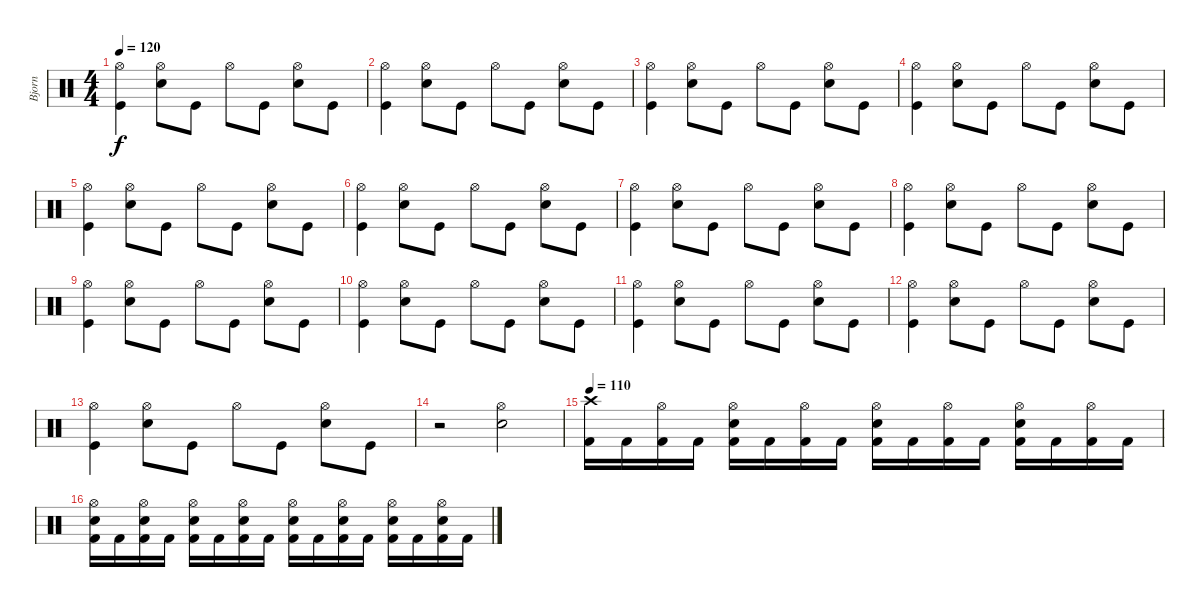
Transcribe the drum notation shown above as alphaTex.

\track ("Bjorn " "Bjorn ") {instrument percussion}
\staff {score}
\articulation defaults
\ts (4 4)
\tempo 120
\clef neutral
\ks c
("Hi-Hat (open)" "Kick (hit)").4{dy f} ("Hi-Hat (open)" "Electric Snare (hit)").8 "Kick (hit)".8 "Hi-Hat (open)".8 "Kick (hit)".8 ("Hi-Hat (open)" "Electric Snare (hit)").8 "Kick (hit)".8 |
("Hi-Hat (open)" "Kick (hit)").4 ("Hi-Hat (open)" "Electric Snare (hit)").8 "Kick (hit)".8 "Hi-Hat (open)".8 "Kick (hit)".8 ("Hi-Hat (open)" "Electric Snare (hit)").8 "Kick (hit)".8 |
("Hi-Hat (open)" "Kick (hit)").4 ("Hi-Hat (open)" "Electric Snare (hit)").8 "Kick (hit)".8 "Hi-Hat (open)".8 "Kick (hit)".8 ("Hi-Hat (open)" "Electric Snare (hit)").8 "Kick (hit)".8 |
("Hi-Hat (open)" "Kick (hit)").4 ("Hi-Hat (open)" "Electric Snare (hit)").8 "Kick (hit)".8 "Hi-Hat (open)".8 "Kick (hit)".8 ("Hi-Hat (open)" "Electric Snare (hit)").8 "Kick (hit)".8 |
("Hi-Hat (open)" "Kick (hit)").4 ("Hi-Hat (open)" "Electric Snare (hit)").8 "Kick (hit)".8 "Hi-Hat (open)".8 "Kick (hit)".8 ("Hi-Hat (open)" "Electric Snare (hit)").8 "Kick (hit)".8 |
("Hi-Hat (open)" "Kick (hit)").4 ("Hi-Hat (open)" "Electric Snare (hit)").8 "Kick (hit)".8 "Hi-Hat (open)".8 "Kick (hit)".8 ("Hi-Hat (open)" "Electric Snare (hit)").8 "Kick (hit)".8 |
("Hi-Hat (open)" "Kick (hit)").4 ("Hi-Hat (open)" "Electric Snare (hit)").8 "Kick (hit)".8 "Hi-Hat (open)".8 "Kick (hit)".8 ("Hi-Hat (open)" "Electric Snare (hit)").8 "Kick (hit)".8 |
("Hi-Hat (open)" "Kick (hit)").4 ("Hi-Hat (open)" "Electric Snare (hit)").8 "Kick (hit)".8 "Hi-Hat (open)".8 "Kick (hit)".8 ("Hi-Hat (open)" "Electric Snare (hit)").8 "Kick (hit)".8 |
("Hi-Hat (open)" "Kick (hit)").4 ("Hi-Hat (open)" "Electric Snare (hit)").8 "Kick (hit)".8 "Hi-Hat (open)".8 "Kick (hit)".8 ("Hi-Hat (open)" "Electric Snare (hit)").8 "Kick (hit)".8 |
("Hi-Hat (open)" "Kick (hit)").4 ("Hi-Hat (open)" "Electric Snare (hit)").8 "Kick (hit)".8 "Hi-Hat (open)".8 "Kick (hit)".8 ("Hi-Hat (open)" "Electric Snare (hit)").8 "Kick (hit)".8 |
("Hi-Hat (open)" "Kick (hit)").4 ("Hi-Hat (open)" "Electric Snare (hit)").8 "Kick (hit)".8 "Hi-Hat (open)".8 "Kick (hit)".8 ("Hi-Hat (open)" "Electric Snare (hit)").8 "Kick (hit)".8 |
("Hi-Hat (open)" "Kick (hit)").4 ("Hi-Hat (open)" "Electric Snare (hit)").8 "Kick (hit)".8 "Hi-Hat (open)".8 "Kick (hit)".8 ("Hi-Hat (open)" "Electric Snare (hit)").8 "Kick (hit)".8 |
("Hi-Hat (open)" "Kick (hit)").4 ("Hi-Hat (open)" "Electric Snare (hit)").8 "Kick (hit)".8 "Hi-Hat (open)".8 "Kick (hit)".8 ("Hi-Hat (open)" "Electric Snare (hit)").8 "Kick (hit)".8 |
r.2 ("Hi-Hat (open)" "Electric Snare (hit)").2 |
\tempo 110
("Crash high (hit)" "Kick (hit) 2").16 "Kick (hit) 2".16 ("Hi-Hat (open)" "Kick (hit) 2").16 "Kick (hit) 2".16 ("Hi-Hat (open)" "Electric Snare (hit)" "Kick (hit) 2").16 "Kick (hit) 2".16 ("Hi-Hat (open)" "Kick (hit) 2").16 "Kick (hit) 2".16 ("Hi-Hat (open)" "Electric Snare (hit)" "Kick (hit) 2").16 "Kick (hit) 2".16 ("Hi-Hat (open)" "Kick (hit) 2").16 "Kick (hit) 2".16 ("Hi-Hat (open)" "Electric Snare (hit)" "Kick (hit) 2").16 "Kick (hit) 2".16 ("Hi-Hat (open)" "Kick (hit) 2").16 "Kick (hit) 2".16 |
("Hi-Hat (open)" "Electric Snare (hit)" "Kick (hit) 2").16 "Kick (hit) 2".16 ("Hi-Hat (open)" "Electric Snare (hit)" "Kick (hit) 2").16 "Kick (hit) 2".16 ("Hi-Hat (open)" "Electric Snare (hit)" "Kick (hit) 2").16 "Kick (hit) 2".16 ("Hi-Hat (open)" "Electric Snare (hit)" "Kick (hit) 2").16 "Kick (hit) 2".16 ("Hi-Hat (open)" "Electric Snare (hit)" "Kick (hit) 2").16 "Kick (hit) 2".16 ("Hi-Hat (open)" "Electric Snare (hit)" "Kick (hit) 2").16 "Kick (hit) 2".16 ("Hi-Hat (open)" "Electric Snare (hit)" "Kick (hit) 2").16 "Kick (hit) 2".16 ("Hi-Hat (open)" "Electric Snare (hit)" "Kick (hit) 2").16 "Kick (hit) 2".16
